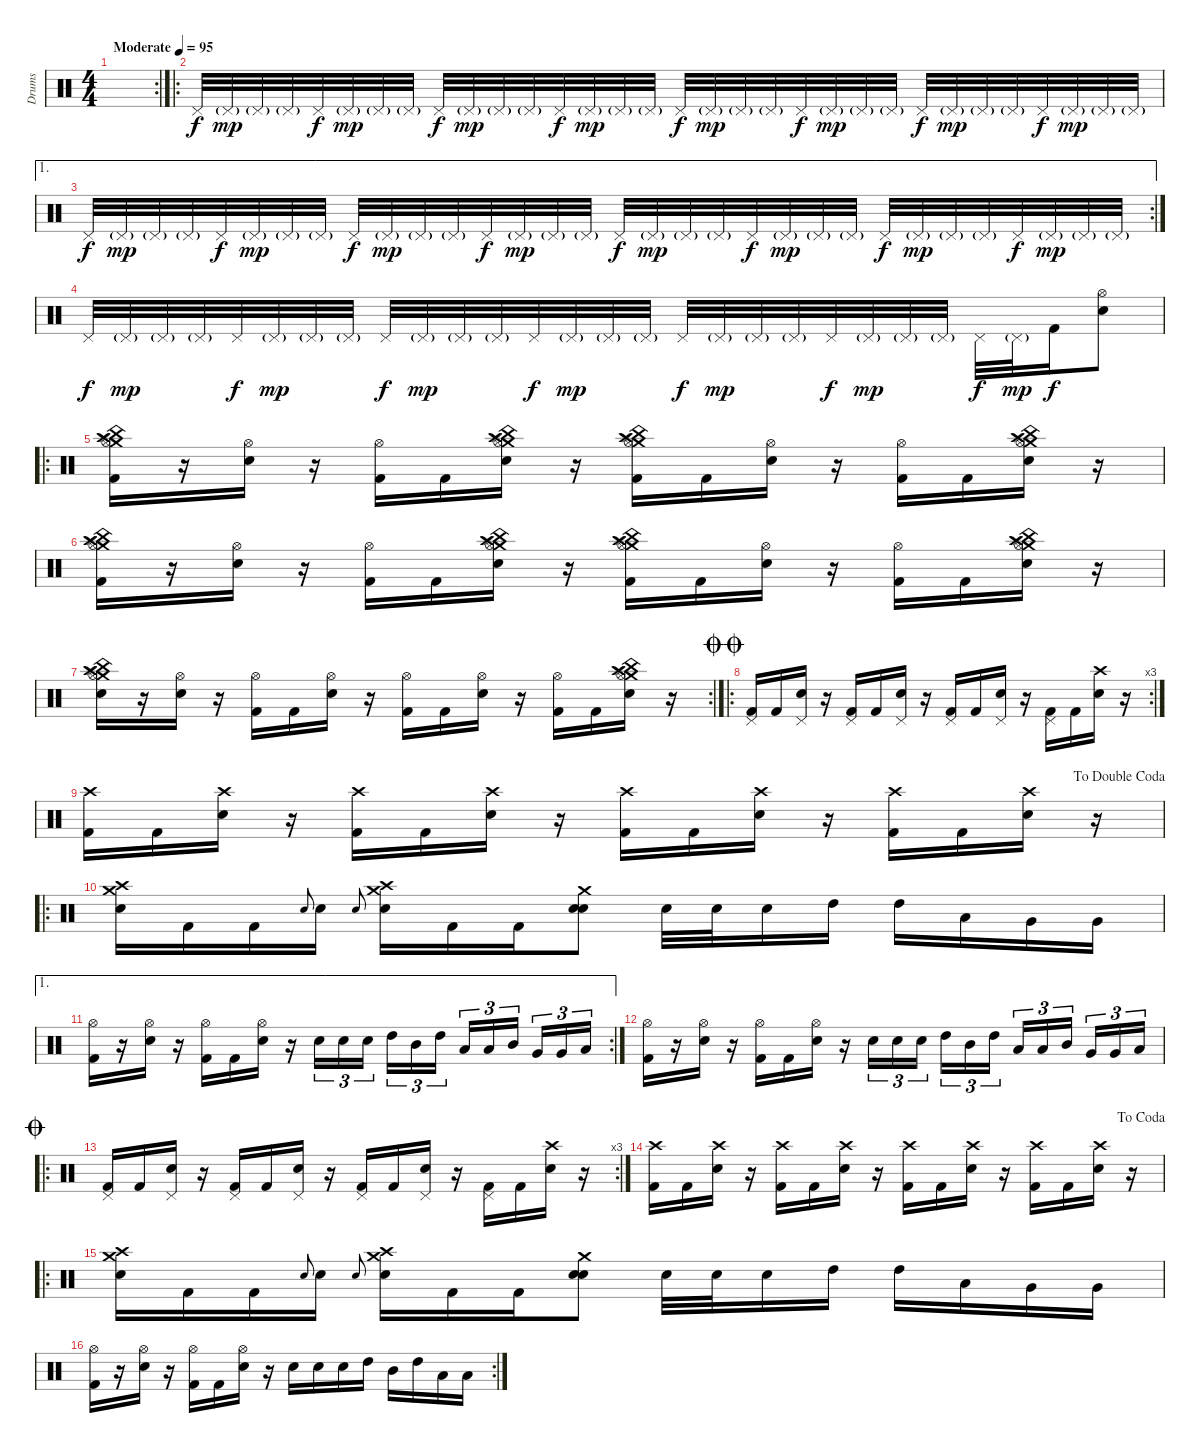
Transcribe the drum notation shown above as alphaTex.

\track ("Drums" "Drums") {instrument percussion}
\staff {score}
\articulation defaults
\rc 2
\ts (4 4)
\tempo (95 "Moderate")
\clef neutral
\ks c
|
\ro "Pedal Hi-Hat (hit)".32 "Pedal Hi-Hat (hit)"{g}.32{dy mp} "Pedal Hi-Hat (hit)"{g}.32 "Pedal Hi-Hat (hit)"{g}.32 "Pedal Hi-Hat (hit)".32{dy f} "Pedal Hi-Hat (hit)"{g}.32{dy mp} "Pedal Hi-Hat (hit)"{g}.32 "Pedal Hi-Hat (hit)"{g}.32 "Pedal Hi-Hat (hit)".32{dy f} "Pedal Hi-Hat (hit)"{g}.32{dy mp} "Pedal Hi-Hat (hit)"{g}.32 "Pedal Hi-Hat (hit)"{g}.32 "Pedal Hi-Hat (hit)".32{dy f} "Pedal Hi-Hat (hit)"{g}.32{dy mp} "Pedal Hi-Hat (hit)"{g}.32 "Pedal Hi-Hat (hit)"{g}.32 "Pedal Hi-Hat (hit)".32{dy f} "Pedal Hi-Hat (hit)"{g}.32{dy mp} "Pedal Hi-Hat (hit)"{g}.32 "Pedal Hi-Hat (hit)"{g}.32 "Pedal Hi-Hat (hit)".32{dy f} "Pedal Hi-Hat (hit)"{g}.32{dy mp} "Pedal Hi-Hat (hit)"{g}.32 "Pedal Hi-Hat (hit)"{g}.32 "Pedal Hi-Hat (hit)".32{dy f} "Pedal Hi-Hat (hit)"{g}.32{dy mp} "Pedal Hi-Hat (hit)"{g}.32 "Pedal Hi-Hat (hit)"{g}.32 "Pedal Hi-Hat (hit)".32{dy f} "Pedal Hi-Hat (hit)"{g}.32{dy mp} "Pedal Hi-Hat (hit)"{g}.32 "Pedal Hi-Hat (hit)"{g}.32
|
\ae 1
\rc 2 "Pedal Hi-Hat (hit)".32{dy f} "Pedal Hi-Hat (hit)"{g}.32{dy mp} "Pedal Hi-Hat (hit)"{g}.32 "Pedal Hi-Hat (hit)"{g}.32 "Pedal Hi-Hat (hit)".32{dy f} "Pedal Hi-Hat (hit)"{g}.32{dy mp} "Pedal Hi-Hat (hit)"{g}.32 "Pedal Hi-Hat (hit)"{g}.32 "Pedal Hi-Hat (hit)".32{dy f} "Pedal Hi-Hat (hit)"{g}.32{dy mp} "Pedal Hi-Hat (hit)"{g}.32 "Pedal Hi-Hat (hit)"{g}.32 "Pedal Hi-Hat (hit)".32{dy f} "Pedal Hi-Hat (hit)"{g}.32{dy mp} "Pedal Hi-Hat (hit)"{g}.32 "Pedal Hi-Hat (hit)"{g}.32 "Pedal Hi-Hat (hit)".32{dy f} "Pedal Hi-Hat (hit)"{g}.32{dy mp} "Pedal Hi-Hat (hit)"{g}.32 "Pedal Hi-Hat (hit)"{g}.32 "Pedal Hi-Hat (hit)".32{dy f} "Pedal Hi-Hat (hit)"{g}.32{dy mp} "Pedal Hi-Hat (hit)"{g}.32 "Pedal Hi-Hat (hit)"{g}.32 "Pedal Hi-Hat (hit)".32{dy f} "Pedal Hi-Hat (hit)"{g}.32{dy mp} "Pedal Hi-Hat (hit)"{g}.32 "Pedal Hi-Hat (hit)"{g}.32 "Pedal Hi-Hat (hit)".32{dy f} "Pedal Hi-Hat (hit)"{g}.32{dy mp} "Pedal Hi-Hat (hit)"{g}.32 "Pedal Hi-Hat (hit)"{g}.32
|
"Pedal Hi-Hat (hit)".32{dy f} "Pedal Hi-Hat (hit)"{g}.32{dy mp} "Pedal Hi-Hat (hit)"{g}.32 "Pedal Hi-Hat (hit)"{g}.32 "Pedal Hi-Hat (hit)".32{dy f} "Pedal Hi-Hat (hit)"{g}.32{dy mp} "Pedal Hi-Hat (hit)"{g}.32 "Pedal Hi-Hat (hit)"{g}.32 "Pedal Hi-Hat (hit)".32{dy f} "Pedal Hi-Hat (hit)"{g}.32{dy mp} "Pedal Hi-Hat (hit)"{g}.32 "Pedal Hi-Hat (hit)"{g}.32 "Pedal Hi-Hat (hit)".32{dy f} "Pedal Hi-Hat (hit)"{g}.32{dy mp} "Pedal Hi-Hat (hit)"{g}.32 "Pedal Hi-Hat (hit)"{g}.32 "Pedal Hi-Hat (hit)".32{dy f} "Pedal Hi-Hat (hit)"{g}.32{dy mp} "Pedal Hi-Hat (hit)"{g}.32 "Pedal Hi-Hat (hit)"{g}.32 "Pedal Hi-Hat (hit)".32{dy f} "Pedal Hi-Hat (hit)"{g}.32{dy mp} "Pedal Hi-Hat (hit)"{g}.32 "Pedal Hi-Hat (hit)"{g}.32 "Pedal Hi-Hat (hit)".32{dy f} "Pedal Hi-Hat (hit)"{g}.32{dy mp} "Kick (hit) 2".16{dy f} ("Hi-Hat (open)" "Electric Snare (hit)").8 |
\ro
("Crash high (hit)" "Crash medium (hit)" "Kick (hit) 2" "China (hit)" "Hi-Hat (open)" "Splash (hit)").16 r.16 ("Hi-Hat (open)" "Electric Snare (hit)").16 r.16 ("Hi-Hat (open)" "Kick (hit) 2").16 "Kick (hit) 2".16 ("Crash high (hit)" "Crash medium (hit)" "Electric Snare (hit)" "China (hit)" "Hi-Hat (open)" "Splash (hit)").16 r.16 ("Crash high (hit)" "Crash medium (hit)" "Kick (hit) 2" "China (hit)" "Hi-Hat (open)" "Splash (hit)").16 "Kick (hit) 2".16 ("Hi-Hat (open)" "Electric Snare (hit)").16 r.16 ("Hi-Hat (open)" "Kick (hit) 2").16 "Kick (hit) 2".16 ("Crash high (hit)" "Crash medium (hit)" "Electric Snare (hit)" "China (hit)" "Hi-Hat (open)" "Splash (hit)").16 r.16 |
("Crash high (hit)" "Crash medium (hit)" "Kick (hit) 2" "China (hit)" "Hi-Hat (open)" "Splash (hit)").16 r.16 ("Hi-Hat (open)" "Electric Snare (hit)").16 r.16 ("Hi-Hat (open)" "Kick (hit) 2").16 "Kick (hit) 2".16 ("Crash high (hit)" "Crash medium (hit)" "Electric Snare (hit)" "China (hit)" "Hi-Hat (open)" "Splash (hit)").16 r.16 ("Crash high (hit)" "Crash medium (hit)" "Kick (hit) 2" "China (hit)" "Hi-Hat (open)" "Splash (hit)").16 "Kick (hit) 2".16 ("Hi-Hat (open)" "Electric Snare (hit)").16 r.16 ("Hi-Hat (open)" "Kick (hit) 2").16 "Kick (hit) 2".16 ("Crash high (hit)" "Crash medium (hit)" "Electric Snare (hit)" "China (hit)" "Hi-Hat (open)" "Splash (hit)").16 r.16 |
\rc 2
("Crash high (hit)" "Crash medium (hit)" "Electric Snare (hit)" "China (hit)" "Hi-Hat (open)" "Splash (hit)").16 r.16 ("Hi-Hat (open)" "Electric Snare (hit)").16 r.16 ("Hi-Hat (open)" "Kick (hit) 2").16 "Kick (hit) 2".16 ("Hi-Hat (open)" "Electric Snare (hit)").16 r.16 ("Hi-Hat (open)" "Kick (hit) 2").16 "Kick (hit) 2".16 ("Hi-Hat (open)" "Electric Snare (hit)").16 r.16 ("Hi-Hat (open)" "Kick (hit) 2").16 "Kick (hit) 2".16 ("Crash high (hit)" "Crash medium (hit)" "Electric Snare (hit)" "China (hit)" "Hi-Hat (open)" "Splash (hit)").16 r.16 |
\ro
\rc 3
\jump doublecoda
("Pedal Hi-Hat (hit)" "Kick (hit) 2").16 "Kick (hit) 2".16 ("Pedal Hi-Hat (hit)" "Electric Snare (hit)").16 r.16 ("Pedal Hi-Hat (hit)" "Kick (hit) 2").16 "Kick (hit) 2".16 ("Pedal Hi-Hat (hit)" "Electric Snare (hit)").16 r.16 ("Pedal Hi-Hat (hit)" "Kick (hit) 2").16 "Kick (hit) 2".16 ("Pedal Hi-Hat (hit)" "Electric Snare (hit)").16 r.16 ("Pedal Hi-Hat (hit)" "Kick (hit) 2").16 "Kick (hit) 2".16 ("Crash high (hit)" "Electric Snare (hit)").16 r.16 |
\jump dadoublecoda
("Crash high (hit)" "Kick (hit) 2").16 "Kick (hit) 2".16 ("Crash high (hit)" "Electric Snare (hit)").16 r.16 ("Crash high (hit)" "Kick (hit) 2").16 "Kick (hit) 2".16 ("Crash high (hit)" "Electric Snare (hit)").16 r.16 ("Crash high (hit)" "Kick (hit) 2").16 "Kick (hit) 2".16 ("Crash high (hit)" "Electric Snare (hit)").16 r.16 ("Crash high (hit)" "Kick (hit) 2").16 "Kick (hit) 2".16 ("Crash high (hit)" "Electric Snare (hit)").16 r.16 |
\ro
("Crash high (hit)" "Crash medium (hit)" "Electric Snare (hit)").16 "Kick (hit) 2".16 "Kick (hit) 2".16 "Electric Snare (hit)".8{gr onbeat} "Electric Snare (hit)".16 "Electric Snare (hit)".8{gr onbeat} ("Crash high (hit)" "Crash medium (hit)" "Electric Snare (hit)").16 "Kick (hit) 2".16 "Kick (hit) 2".16 ("Electric Snare (hit)" "Crash medium (hit)" "Electric Snare (hit)").8 "Electric Snare (hit)".32 "Electric Snare (hit)".32 "Electric Snare (hit)".16 "High Tom (hit)".16 "High Tom (hit)".16 "Low Tom (hit)".16 "Very Low Tom (hit)".16 "Very Low Tom (hit)".16 |
\ae 1
\rc 2
("Hi-Hat (open)" "Kick (hit) 2").16 r.16 ("Hi-Hat (open)" "Electric Snare (hit)").16 r.16 ("Hi-Hat (open)" "Kick (hit) 2").16 "Kick (hit) 2".16 ("Hi-Hat (open)" "Electric Snare (hit)").16 r.16 "Electric Snare (hit)".16{tu (3 2)} "Electric Snare (hit)".16{tu (3 2)} "Electric Snare (hit)".16{tu (3 2) beam splitsecondary} "High Tom (hit)".16{tu (3 2)} "Mid Tom (hit)".16{tu (3 2)} "High Tom (hit)".16{tu (3 2)} "Low Tom (hit)".16{tu (3 2)} "Low Tom (hit)".16{tu (3 2)} "Mid Tom (hit)".16{tu (3 2) beam splitsecondary} "Very Low Tom (hit)".16{tu (3 2)} "Very Low Tom (hit)".16{tu (3 2)} "Low Floor Tom (hit)".16{tu (3 2)} |
("Hi-Hat (open)" "Kick (hit) 2").16 r.16 ("Hi-Hat (open)" "Electric Snare (hit)").16 r.16 ("Hi-Hat (open)" "Kick (hit) 2").16 "Kick (hit) 2".16 ("Hi-Hat (open)" "Electric Snare (hit)").16 r.16 "Electric Snare (hit)".16{tu (3 2)} "Electric Snare (hit)".16{tu (3 2)} "Electric Snare (hit)".16{tu (3 2) beam splitsecondary} "High Tom (hit)".16{tu (3 2)} "Mid Tom (hit)".16{tu (3 2)} "High Tom (hit)".16{tu (3 2)} "Low Tom (hit)".16{tu (3 2)} "Low Tom (hit)".16{tu (3 2)} "Mid Tom (hit)".16{tu (3 2) beam splitsecondary} "Very Low Tom (hit)".16{tu (3 2)} "Very Low Tom (hit)".16{tu (3 2)} "Low Floor Tom (hit)".16{tu (3 2)} |
\ro
\rc 3
\jump coda
("Pedal Hi-Hat (hit)" "Kick (hit) 2").16 "Kick (hit) 2".16 ("Pedal Hi-Hat (hit)" "Electric Snare (hit)").16 r.16 ("Pedal Hi-Hat (hit)" "Kick (hit) 2").16 "Kick (hit) 2".16 ("Pedal Hi-Hat (hit)" "Electric Snare (hit)").16 r.16 ("Pedal Hi-Hat (hit)" "Kick (hit) 2").16 "Kick (hit) 2".16 ("Pedal Hi-Hat (hit)" "Electric Snare (hit)").16 r.16 ("Pedal Hi-Hat (hit)" "Kick (hit) 2").16 "Kick (hit) 2".16 ("Crash high (hit)" "Electric Snare (hit)").16 r.16 |
\jump dacoda
("Crash high (hit)" "Kick (hit) 2").16 "Kick (hit) 2".16 ("Crash high (hit)" "Electric Snare (hit)").16 r.16 ("Crash high (hit)" "Kick (hit) 2").16 "Kick (hit) 2".16 ("Crash high (hit)" "Electric Snare (hit)").16 r.16 ("Crash high (hit)" "Kick (hit) 2").16 "Kick (hit) 2".16 ("Crash high (hit)" "Electric Snare (hit)").16 r.16 ("Crash high (hit)" "Kick (hit) 2").16 "Kick (hit) 2".16 ("Crash high (hit)" "Electric Snare (hit)").16 r.16 |
\ro
("Crash high (hit)" "Crash medium (hit)" "Electric Snare (hit)").16 "Kick (hit) 2".16 "Kick (hit) 2".16 "Electric Snare (hit)".8{gr onbeat} "Electric Snare (hit)".16 "Electric Snare (hit)".8{gr onbeat} ("Crash high (hit)" "Crash medium (hit)" "Electric Snare (hit)").16 "Kick (hit) 2".16 "Kick (hit) 2".16 ("Electric Snare (hit)" "Crash medium (hit)" "Electric Snare (hit)").8 "Electric Snare (hit)".32 "Electric Snare (hit)".32 "Electric Snare (hit)".16 "High Tom (hit)".16 "High Tom (hit)".16 "Low Tom (hit)".16 "Very Low Tom (hit)".16 "Very Low Tom (hit)".16 |
\rc 2
("Hi-Hat (open)" "Kick (hit) 2").16 r.16 ("Hi-Hat (open)" "Electric Snare (hit)").16 r.16 ("Hi-Hat (open)" "Kick (hit) 2").16 "Kick (hit) 2".16 ("Hi-Hat (open)" "Electric Snare (hit)").16 r.16 "Electric Snare (hit)".16 "Electric Snare (hit)".16 "Electric Snare (hit)".16 "High Tom (hit)".16 "Mid Tom (hit)".16 "High Tom (hit)".16 "Low Tom (hit)".16 "Low Tom (hit)".16
